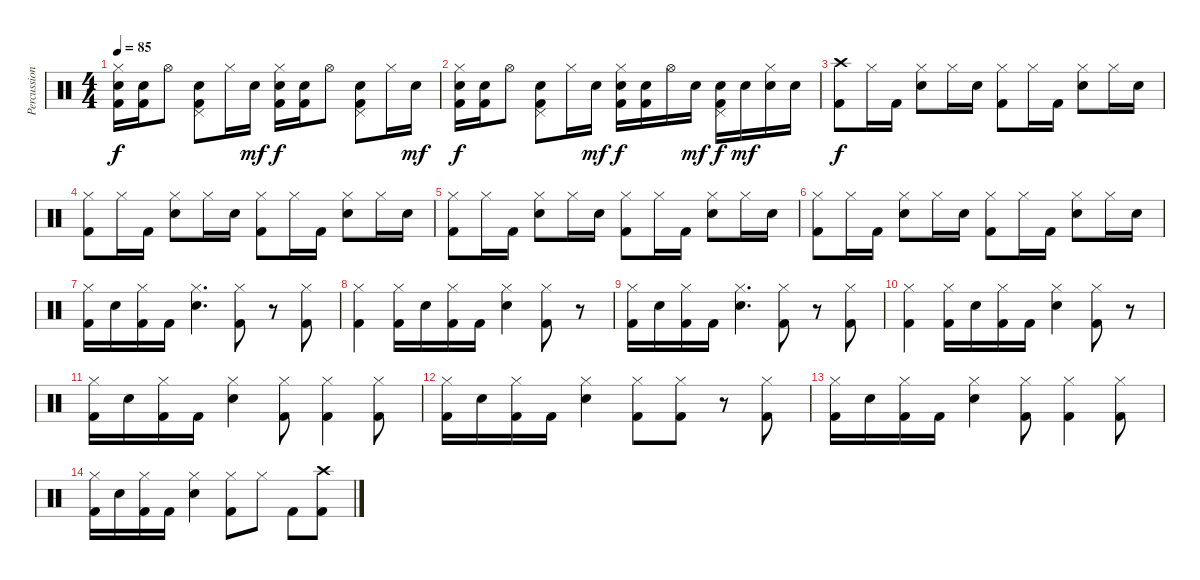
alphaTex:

\track ("Percussion" "Percussion") {instrument percussion}
\staff {score}
\articulation defaults
\ts (4 4)
\tempo 85
\clef neutral
\ks c
("Hi-Hat (closed)" "Electric Snare (hit)" "Kick (hit) 2").16{dy f} ("Electric Snare (hit)" "Kick (hit) 2").16 "Hi-Hat (open)".8 ("Pedal Hi-Hat (hit)" "Electric Snare (hit)" "Kick (hit) 2").8 "Hi-Hat (closed)".16 "Electric Snare (hit)".16{dy mf} ("Hi-Hat (closed)" "Electric Snare (hit)" "Kick (hit) 2").16{dy f} ("Electric Snare (hit)" "Kick (hit) 2").16 "Hi-Hat (open)".8 ("Pedal Hi-Hat (hit)" "Electric Snare (hit)" "Kick (hit) 2").8 "Hi-Hat (closed)".16 "Electric Snare (hit)".16{dy mf} |
("Hi-Hat (closed)" "Electric Snare (hit)" "Kick (hit) 2").16{dy f} ("Electric Snare (hit)" "Kick (hit) 2").16 "Hi-Hat (open)".8 ("Pedal Hi-Hat (hit)" "Electric Snare (hit)" "Kick (hit) 2").8 "Hi-Hat (closed)".16 "Electric Snare (hit)".16{dy mf} ("Hi-Hat (closed)" "Electric Snare (hit)" "Kick (hit) 2").16{dy f} ("Electric Snare (hit)" "Kick (hit) 2").16 "Hi-Hat (open)".16 "Electric Snare (hit)".16{dy mf} ("Pedal Hi-Hat (hit)" "Electric Snare (hit)" "Kick (hit) 2").16{dy f} "Electric Snare (hit)".16{dy mf} ("Hi-Hat (closed)" "Electric Snare (hit)").16 "Electric Snare (hit)".16 |
("Crash high (hit)" "Kick (hit) 2").8{dy f} "Hi-Hat (closed)".16 "Kick (hit) 2".16 ("Hi-Hat (closed)" "Electric Snare (hit)").8 "Hi-Hat (closed)".16 "Electric Snare (hit)".16 ("Hi-Hat (closed)" "Kick (hit) 2").8 "Hi-Hat (closed)".16 "Kick (hit) 2".16 ("Hi-Hat (closed)" "Electric Snare (hit)").8 "Hi-Hat (closed)".16 "Electric Snare (hit)".16 |
("Hi-Hat (closed)" "Kick (hit) 2").8 "Hi-Hat (closed)".16 "Kick (hit) 2".16 ("Hi-Hat (closed)" "Electric Snare (hit)").8 "Hi-Hat (closed)".16 "Electric Snare (hit)".16 ("Hi-Hat (closed)" "Kick (hit) 2").8 "Hi-Hat (closed)".16 "Kick (hit) 2".16 ("Hi-Hat (closed)" "Electric Snare (hit)").8 "Hi-Hat (closed)".16 "Electric Snare (hit)".16 |
("Hi-Hat (closed)" "Kick (hit) 2").8 "Hi-Hat (closed)".16 "Kick (hit) 2".16 ("Hi-Hat (closed)" "Electric Snare (hit)").8 "Hi-Hat (closed)".16 "Electric Snare (hit)".16 ("Hi-Hat (closed)" "Kick (hit) 2").8 "Hi-Hat (closed)".16 "Kick (hit) 2".16 ("Hi-Hat (closed)" "Electric Snare (hit)").8 "Hi-Hat (closed)".16 "Electric Snare (hit)".16 |
("Hi-Hat (closed)" "Kick (hit) 2").8 "Hi-Hat (closed)".16 "Kick (hit) 2".16 ("Hi-Hat (closed)" "Electric Snare (hit)").8 "Hi-Hat (closed)".16 "Electric Snare (hit)".16 ("Hi-Hat (closed)" "Kick (hit) 2").8 "Hi-Hat (closed)".16 "Kick (hit) 2".16 ("Hi-Hat (closed)" "Electric Snare (hit)").8 "Hi-Hat (closed)".16 "Electric Snare (hit)".16 |
("Hi-Hat (closed)" "Kick (hit) 2").16 "Electric Snare (hit)".16 ("Hi-Hat (closed)" "Kick (hit) 2").16 "Kick (hit) 2".16 ("Hi-Hat (closed)" "Electric Snare (hit)").4{d} ("Hi-Hat (closed)" "Kick (hit) 2").8 r.8 ("Hi-Hat (closed)" "Kick (hit) 2").8 |
("Hi-Hat (closed)" "Kick (hit) 2").4 ("Hi-Hat (closed)" "Kick (hit) 2").16 "Electric Snare (hit)".16 ("Hi-Hat (closed)" "Kick (hit) 2").16 "Kick (hit) 2".16 ("Hi-Hat (closed)" "Electric Snare (hit)").4 ("Hi-Hat (closed)" "Kick (hit) 2").8 r.8 |
("Hi-Hat (closed)" "Kick (hit) 2").16 "Electric Snare (hit)".16 ("Hi-Hat (closed)" "Kick (hit) 2").16 "Kick (hit) 2".16 ("Hi-Hat (closed)" "Electric Snare (hit)").4{d} ("Hi-Hat (closed)" "Kick (hit) 2").8 r.8 ("Hi-Hat (closed)" "Kick (hit) 2").8 |
("Hi-Hat (closed)" "Kick (hit) 2").4 ("Hi-Hat (closed)" "Kick (hit) 2").16 "Electric Snare (hit)".16 ("Hi-Hat (closed)" "Kick (hit) 2").16 "Kick (hit) 2".16 ("Hi-Hat (closed)" "Electric Snare (hit)").4 ("Hi-Hat (closed)" "Kick (hit) 2").8 r.8 |
("Hi-Hat (closed)" "Kick (hit) 2").16 "Electric Snare (hit)".16 ("Hi-Hat (closed)" "Kick (hit) 2").16 "Kick (hit) 2".16 ("Hi-Hat (closed)" "Electric Snare (hit)").4 ("Hi-Hat (closed)" "Kick (hit) 2").8 ("Hi-Hat (closed)" "Kick (hit) 2").4 ("Hi-Hat (closed)" "Kick (hit) 2").8 |
("Hi-Hat (closed)" "Kick (hit) 2").16 "Electric Snare (hit)".16 ("Hi-Hat (closed)" "Kick (hit) 2").16 "Kick (hit) 2".16 ("Hi-Hat (closed)" "Electric Snare (hit)").4 ("Hi-Hat (closed)" "Kick (hit) 2").8 ("Hi-Hat (closed)" "Kick (hit) 2").8 r.8 ("Hi-Hat (closed)" "Kick (hit) 2").8 |
("Hi-Hat (closed)" "Kick (hit) 2").16 "Electric Snare (hit)".16 ("Hi-Hat (closed)" "Kick (hit) 2").16 "Kick (hit) 2".16 ("Hi-Hat (closed)" "Electric Snare (hit)").4 ("Hi-Hat (closed)" "Kick (hit) 2").8 ("Hi-Hat (closed)" "Kick (hit) 2").4 ("Hi-Hat (closed)" "Kick (hit) 2").8 |
("Hi-Hat (closed)" "Kick (hit) 2").16 "Electric Snare (hit)".16 ("Hi-Hat (closed)" "Kick (hit) 2").16 "Kick (hit) 2".16 ("Hi-Hat (closed)" "Electric Snare (hit)").4 ("Hi-Hat (closed)" "Kick (hit) 2").8 "Hi-Hat (closed)".8 "Kick (hit) 2".8 ("Crash high (hit)" "Kick (hit) 2").8
